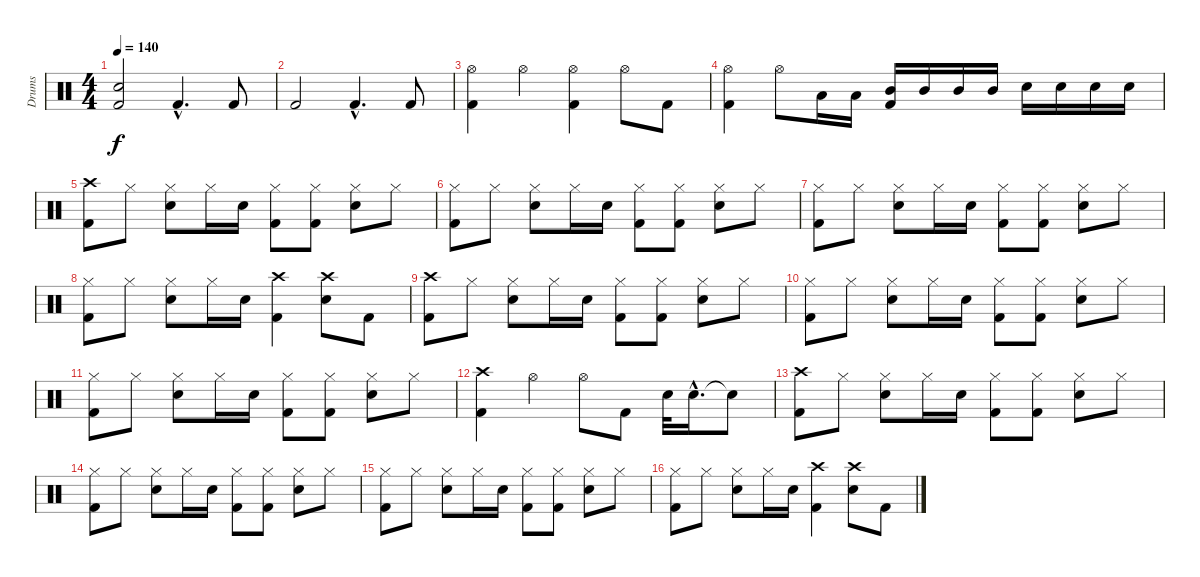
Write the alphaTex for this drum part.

\track ("Drums" "Drums") {instrument percussion}
\staff {score}
\articulation defaults
\ts (4 4)
\tempo 140
\clef neutral
\ks c
("Snare (hit) 2" "Kick (hit) 2").2{dy f} "Kick (hit) 2"{hac}.4{d} "Kick (hit) 2".8 |
"Kick (hit) 2".2 "Kick (hit) 2"{hac}.4{d} "Kick (hit) 2".8 |
("Hi-Hat (open)" "Kick (hit) 2").4 "Hi-Hat (open)".4 ("Hi-Hat (open)" "Kick (hit) 2").4 "Hi-Hat (open)".8 "Kick (hit) 2".8 |
("Hi-Hat (open)" "Kick (hit) 2").4 "Hi-Hat (open)".8 "Low Tom (hit)".16 "Low Tom (hit)".16 ("Mid Tom (hit)" "Kick (hit) 2").16 "Mid Tom (hit)".16 "Mid Tom (hit)".16 "Mid Tom (hit)".16 "Snare (hit) 2".16 "Snare (hit) 2".16 "Snare (hit) 2".16 "Snare (hit) 2".16 |
("Crash high (hit)" "Kick (hit) 2").8 "Hi-Hat (closed)".8 ("Hi-Hat (closed)" "Snare (hit) 2").8 "Hi-Hat (closed)".16 "Snare (hit) 2".16 ("Hi-Hat (closed)" "Kick (hit) 2").8 ("Hi-Hat (closed)" "Kick (hit) 2").8 ("Hi-Hat (closed)" "Snare (hit) 2").8 "Hi-Hat (closed)".8 |
("Hi-Hat (closed)" "Kick (hit) 2").8 "Hi-Hat (closed)".8 ("Hi-Hat (closed)" "Snare (hit) 2").8 "Hi-Hat (closed)".16 "Snare (hit) 2".16 ("Hi-Hat (closed)" "Kick (hit) 2").8 ("Hi-Hat (closed)" "Kick (hit) 2").8 ("Hi-Hat (closed)" "Snare (hit) 2").8 "Hi-Hat (closed)".8 |
("Hi-Hat (closed)" "Kick (hit) 2").8 "Hi-Hat (closed)".8 ("Hi-Hat (closed)" "Snare (hit) 2").8 "Hi-Hat (closed)".16 "Snare (hit) 2".16 ("Hi-Hat (closed)" "Kick (hit) 2").8 ("Hi-Hat (closed)" "Kick (hit) 2").8 ("Hi-Hat (closed)" "Snare (hit) 2").8 "Hi-Hat (closed)".8 |
("Hi-Hat (closed)" "Kick (hit) 2").8 "Hi-Hat (closed)".8 ("Hi-Hat (closed)" "Snare (hit) 2").8 "Hi-Hat (closed)".16 "Snare (hit) 2".16 ("Crash high (hit)" "Kick (hit) 2").4 ("Crash high (hit)" "Snare (hit) 2").8 "Kick (hit) 2".8 |
("Crash high (hit)" "Kick (hit) 2").8 "Hi-Hat (closed)".8 ("Hi-Hat (closed)" "Snare (hit) 2").8 "Hi-Hat (closed)".16 "Snare (hit) 2".16 ("Hi-Hat (closed)" "Kick (hit) 2").8 ("Hi-Hat (closed)" "Kick (hit) 2").8 ("Hi-Hat (closed)" "Snare (hit) 2").8 "Hi-Hat (closed)".8 |
("Hi-Hat (closed)" "Kick (hit) 2").8 "Hi-Hat (closed)".8 ("Hi-Hat (closed)" "Snare (hit) 2").8 "Hi-Hat (closed)".16 "Snare (hit) 2".16 ("Hi-Hat (closed)" "Kick (hit) 2").8 ("Hi-Hat (closed)" "Kick (hit) 2").8 ("Hi-Hat (closed)" "Snare (hit) 2").8 "Hi-Hat (closed)".8 |
("Hi-Hat (closed)" "Kick (hit) 2").8 "Hi-Hat (closed)".8 ("Hi-Hat (closed)" "Snare (hit) 2").8 "Hi-Hat (closed)".16 "Snare (hit) 2".16 ("Hi-Hat (closed)" "Kick (hit) 2").8 ("Hi-Hat (closed)" "Kick (hit) 2").8 ("Hi-Hat (closed)" "Snare (hit) 2").8 "Hi-Hat (closed)".8 |
("Crash high (hit)" "Kick (hit) 2").4 "Hi-Hat (open)".4 "Hi-Hat (open)".8 "Kick (hit) 2".8 "Snare (hit) 2".32 "Snare (hit) 2"{hac}.16{d} "Snare (hit)"{t}.8 |
("Crash high (hit)" "Kick (hit) 2").8 "Hi-Hat (closed)".8 ("Hi-Hat (closed)" "Snare (hit) 2").8 "Hi-Hat (closed)".16 "Snare (hit) 2".16 ("Hi-Hat (closed)" "Kick (hit) 2").8 ("Hi-Hat (closed)" "Kick (hit) 2").8 ("Hi-Hat (closed)" "Snare (hit) 2").8 "Hi-Hat (closed)".8 |
("Hi-Hat (closed)" "Kick (hit) 2").8 "Hi-Hat (closed)".8 ("Hi-Hat (closed)" "Snare (hit) 2").8 "Hi-Hat (closed)".16 "Snare (hit) 2".16 ("Hi-Hat (closed)" "Kick (hit) 2").8 ("Hi-Hat (closed)" "Kick (hit) 2").8 ("Hi-Hat (closed)" "Snare (hit) 2").8 "Hi-Hat (closed)".8 |
("Hi-Hat (closed)" "Kick (hit) 2").8 "Hi-Hat (closed)".8 ("Hi-Hat (closed)" "Snare (hit) 2").8 "Hi-Hat (closed)".16 "Snare (hit) 2".16 ("Hi-Hat (closed)" "Kick (hit) 2").8 ("Hi-Hat (closed)" "Kick (hit) 2").8 ("Hi-Hat (closed)" "Snare (hit) 2").8 "Hi-Hat (closed)".8 |
("Hi-Hat (closed)" "Kick (hit) 2").8 "Hi-Hat (closed)".8 ("Hi-Hat (closed)" "Snare (hit) 2").8 "Hi-Hat (closed)".16 "Snare (hit) 2".16 ("Crash high (hit)" "Kick (hit) 2").4 ("Crash high (hit)" "Snare (hit) 2").8 "Kick (hit) 2".8
